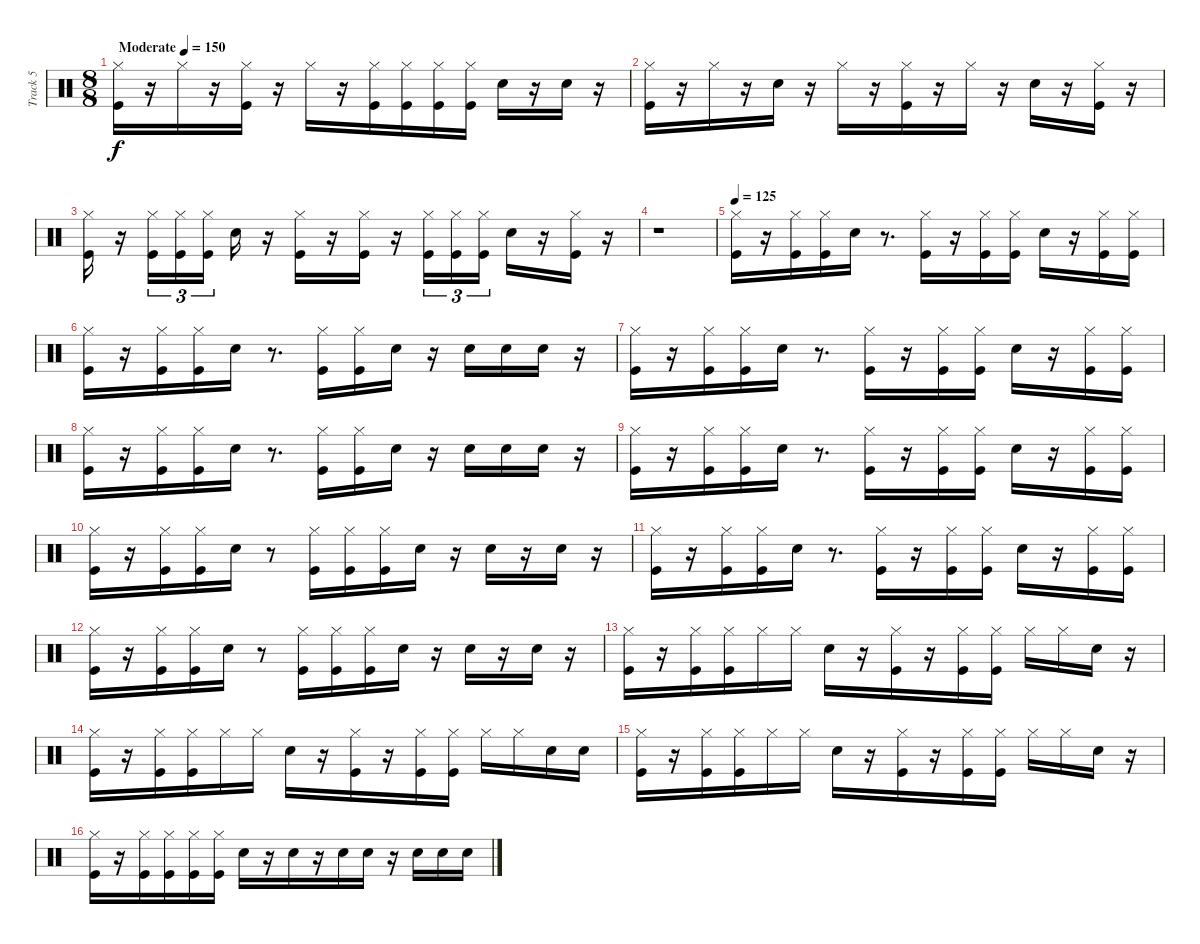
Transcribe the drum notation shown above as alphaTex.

\track ("Track 5" "Track 5") {instrument percussion}
\staff {score}
\articulation defaults
\ts (8 8)
\tempo (150 "Moderate")
\clef neutral
\ks c
("Kick (hit)" "Hi-Hat (closed)").16{dy f} r.16 "Hi-Hat (closed)".16 r.16 ("Kick (hit)" "Hi-Hat (closed)").16 r.16 "Hi-Hat (closed)".16 r.16 ("Kick (hit)" "Hi-Hat (closed)").16 ("Kick (hit)" "Hi-Hat (closed)").16 ("Kick (hit)" "Hi-Hat (closed)").16 ("Kick (hit)" "Hi-Hat (closed)").16 "Snare (hit) 2".16 r.16 "Snare (hit) 2".16 r.16 |
("Kick (hit)" "Hi-Hat (closed)").16 r.16 "Hi-Hat (closed)".16 r.16 "Snare (hit) 2".16 r.16 "Hi-Hat (closed)".16 r.16 ("Kick (hit)" "Hi-Hat (closed)").16 r.16 "Hi-Hat (closed)".16 r.16 "Snare (hit) 2".16 r.16 ("Kick (hit)" "Hi-Hat (closed)").16 r.16 |
("Kick (hit)" "Hi-Hat (closed)").16 r.16 ("Kick (hit)" "Hi-Hat (closed)").16{tu (3 2)} ("Kick (hit)" "Hi-Hat (closed)").16{tu (3 2)} ("Kick (hit)" "Hi-Hat (closed)").16{tu (3 2)} "Snare (hit) 2".16 r.16 ("Kick (hit)" "Hi-Hat (closed)").16 r.16 ("Kick (hit)" "Hi-Hat (closed)").16 r.16 ("Kick (hit)" "Hi-Hat (closed)").16{tu (3 2)} ("Kick (hit)" "Hi-Hat (closed)").16{tu (3 2)} ("Kick (hit)" "Hi-Hat (closed)").16{tu (3 2)} "Snare (hit) 2".16 r.16 ("Kick (hit)" "Hi-Hat (closed)").16 r.16 |
r.1 |
\tempo 125
("Kick (hit)" "Hi-Hat (closed)").16 r.16 ("Kick (hit)" "Hi-Hat (closed)").16 ("Kick (hit)" "Hi-Hat (closed)").16 "Snare (hit) 2".16 r.8{d} ("Kick (hit)" "Hi-Hat (closed)").16 r.16 ("Kick (hit)" "Hi-Hat (closed)").16 ("Kick (hit)" "Hi-Hat (closed)").16 "Snare (hit) 2".16 r.16 ("Kick (hit)" "Hi-Hat (closed)").16 ("Kick (hit)" "Hi-Hat (closed)").16 |
("Kick (hit)" "Hi-Hat (closed)").16 r.16 ("Kick (hit)" "Hi-Hat (closed)").16 ("Kick (hit)" "Hi-Hat (closed)").16 "Snare (hit) 2".16 r.8{d} ("Kick (hit)" "Hi-Hat (closed)").16 ("Kick (hit)" "Hi-Hat (closed)").16 "Snare (hit) 2".16 r.16 "Snare (hit) 2".16 "Snare (hit) 2".16 "Snare (hit) 2".16 r.16 |
("Kick (hit)" "Hi-Hat (closed)").16 r.16 ("Kick (hit)" "Hi-Hat (closed)").16 ("Kick (hit)" "Hi-Hat (closed)").16 "Snare (hit) 2".16 r.8{d} ("Kick (hit)" "Hi-Hat (closed)").16 r.16 ("Kick (hit)" "Hi-Hat (closed)").16 ("Kick (hit)" "Hi-Hat (closed)").16 "Snare (hit) 2".16 r.16 ("Kick (hit)" "Hi-Hat (closed)").16 ("Kick (hit)" "Hi-Hat (closed)").16 |
("Kick (hit)" "Hi-Hat (closed)").16 r.16 ("Kick (hit)" "Hi-Hat (closed)").16 ("Kick (hit)" "Hi-Hat (closed)").16 "Snare (hit) 2".16 r.8{d} ("Kick (hit)" "Hi-Hat (closed)").16 ("Kick (hit)" "Hi-Hat (closed)").16 "Snare (hit) 2".16 r.16 "Snare (hit) 2".16 "Snare (hit) 2".16 "Snare (hit) 2".16 r.16 |
("Kick (hit)" "Hi-Hat (closed)").16 r.16 ("Kick (hit)" "Hi-Hat (closed)").16 ("Kick (hit)" "Hi-Hat (closed)").16 "Snare (hit) 2".16 r.8{d} ("Kick (hit)" "Hi-Hat (closed)").16 r.16 ("Kick (hit)" "Hi-Hat (closed)").16 ("Kick (hit)" "Hi-Hat (closed)").16 "Snare (hit) 2".16 r.16 ("Kick (hit)" "Hi-Hat (closed)").16 ("Kick (hit)" "Hi-Hat (closed)").16 |
("Kick (hit)" "Hi-Hat (closed)").16 r.16 ("Kick (hit)" "Hi-Hat (closed)").16 ("Kick (hit)" "Hi-Hat (closed)").16 "Snare (hit) 2".16 r.8 ("Kick (hit)" "Hi-Hat (closed)").16 ("Kick (hit)" "Hi-Hat (closed)").16 ("Kick (hit)" "Hi-Hat (closed)").16 "Snare (hit) 2".16 r.16 "Snare (hit) 2".16 r.16 "Snare (hit) 2".16 r.16 |
("Kick (hit)" "Hi-Hat (closed)").16 r.16 ("Kick (hit)" "Hi-Hat (closed)").16 ("Kick (hit)" "Hi-Hat (closed)").16 "Snare (hit) 2".16 r.8{d} ("Kick (hit)" "Hi-Hat (closed)").16 r.16 ("Kick (hit)" "Hi-Hat (closed)").16 ("Kick (hit)" "Hi-Hat (closed)").16 "Snare (hit) 2".16 r.16 ("Kick (hit)" "Hi-Hat (closed)").16 ("Kick (hit)" "Hi-Hat (closed)").16 |
("Kick (hit)" "Hi-Hat (closed)").16 r.16 ("Kick (hit)" "Hi-Hat (closed)").16 ("Kick (hit)" "Hi-Hat (closed)").16 "Snare (hit) 2".16 r.8 ("Kick (hit)" "Hi-Hat (closed)").16 ("Kick (hit)" "Hi-Hat (closed)").16 ("Kick (hit)" "Hi-Hat (closed)").16 "Snare (hit) 2".16 r.16 "Snare (hit) 2".16 r.16 "Snare (hit) 2".16 r.16 |
("Kick (hit)" "Hi-Hat (closed)").16 r.16 ("Kick (hit)" "Hi-Hat (closed)").16 ("Kick (hit)" "Hi-Hat (closed)").16 "Hi-Hat (closed)".16 "Hi-Hat (closed)".16 "Snare (hit) 2".16 r.16 ("Kick (hit)" "Hi-Hat (closed)").16 r.16 ("Kick (hit)" "Hi-Hat (closed)").16 ("Kick (hit)" "Hi-Hat (closed)").16 "Hi-Hat (closed)".16 "Hi-Hat (closed)".16 "Snare (hit) 2".16 r.16 |
("Kick (hit)" "Hi-Hat (closed)").16 r.16 ("Kick (hit)" "Hi-Hat (closed)").16 ("Kick (hit)" "Hi-Hat (closed)").16 "Hi-Hat (closed)".16 "Hi-Hat (closed)".16 "Snare (hit) 2".16 r.16 ("Kick (hit)" "Hi-Hat (closed)").16 r.16 ("Kick (hit)" "Hi-Hat (closed)").16 ("Kick (hit)" "Hi-Hat (closed)").16 "Hi-Hat (closed)".16 "Hi-Hat (closed)".16 "Snare (hit) 2".16 "Snare (hit) 2".16 |
("Kick (hit)" "Hi-Hat (closed)").16 r.16 ("Kick (hit)" "Hi-Hat (closed)").16 ("Kick (hit)" "Hi-Hat (closed)").16 "Hi-Hat (closed)".16 "Hi-Hat (closed)".16 "Snare (hit) 2".16 r.16 ("Kick (hit)" "Hi-Hat (closed)").16 r.16 ("Kick (hit)" "Hi-Hat (closed)").16 ("Kick (hit)" "Hi-Hat (closed)").16 "Hi-Hat (closed)".16 "Hi-Hat (closed)".16 "Snare (hit) 2".16 r.16 |
("Kick (hit)" "Hi-Hat (closed)").16 r.16 ("Kick (hit)" "Hi-Hat (closed)").16 ("Kick (hit)" "Hi-Hat (closed)").16 ("Kick (hit)" "Hi-Hat (closed)").16 ("Kick (hit)" "Hi-Hat (closed)").16 "Snare (hit) 2".16 r.16 "Snare (hit) 2".16 r.16 "Snare (hit) 2".16 "Snare (hit) 2".16 r.16 "Snare (hit) 2".16 "Snare (hit) 2".16 "Snare (hit) 2".16
